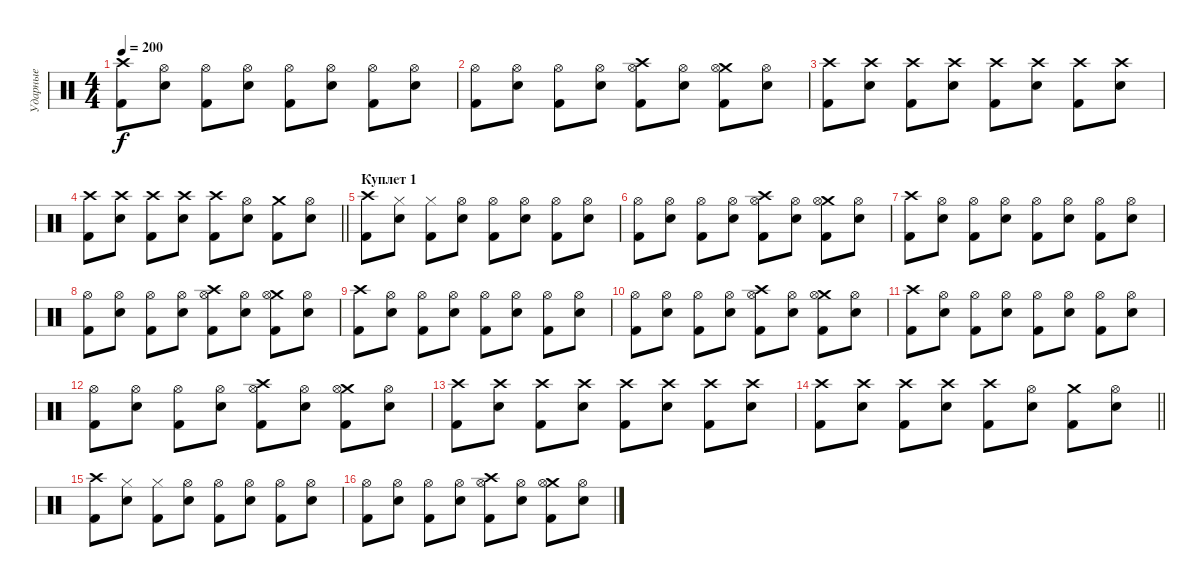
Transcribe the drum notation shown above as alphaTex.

\track ("Ударные" "Ударные") {instrument percussion}
\staff {score}
\articulation defaults
\ts (4 4)
\tempo 200
\clef neutral
\ks c
("Crash high (hit)" "Kick (hit) 2").8{dy f} ("Hi-Hat (open)" "Snare (hit) 2").8 ("Hi-Hat (open)" "Kick (hit) 2").8 ("Hi-Hat (open)" "Snare (hit) 2").8 ("Hi-Hat (open)" "Kick (hit) 2").8 ("Hi-Hat (open)" "Snare (hit) 2").8 ("Hi-Hat (open)" "Kick (hit) 2").8 ("Hi-Hat (open)" "Snare (hit) 2").8 |
("Hi-Hat (open)" "Kick (hit) 2").8 ("Hi-Hat (open)" "Snare (hit) 2").8 ("Hi-Hat (open)" "Kick (hit) 2").8 ("Hi-Hat (open)" "Snare (hit) 2").8 ("Crash high (hit)" "Hi-Hat (open)" "Kick (hit) 2").8 ("Hi-Hat (open)" "Snare (hit) 2").8 ("Crash medium (hit)" "Hi-Hat (open)" "Kick (hit) 2").8 ("Hi-Hat (open)" "Snare (hit) 2").8 |
("Crash high (hit)" "Kick (hit) 2").8 ("Crash high (hit)" "Snare (hit) 2").8 ("Crash high (hit)" "Kick (hit) 2").8 ("Crash high (hit)" "Snare (hit) 2").8 ("Crash high (hit)" "Kick (hit) 2").8 ("Crash high (hit)" "Snare (hit) 2").8 ("Crash high (hit)" "Kick (hit) 2").8 ("Crash high (hit)" "Snare (hit) 2").8 |
\barLineRight lightlight
("Crash high (hit)" "Kick (hit) 2").8 ("Crash high (hit)" "Snare (hit) 2").8 ("Crash high (hit)" "Kick (hit) 2").8 ("Crash high (hit)" "Snare (hit) 2").8 ("Crash high (hit)" "Kick (hit) 2").8 ("Hi-Hat (open)" "Snare (hit) 2").8 ("Crash medium (hit)" "Kick (hit) 2").8 ("Hi-Hat (open)" "Snare (hit) 2").8 |
\section ("" "Куплет 1")
("Crash high (hit)" "Kick (hit) 2").8 ("Hi-Hat (closed)" "Snare (hit) 2").8 ("Hi-Hat (closed)" "Kick (hit) 2").8 ("Hi-Hat (open)" "Snare (hit) 2").8 ("Hi-Hat (open)" "Kick (hit) 2").8 ("Hi-Hat (open)" "Snare (hit) 2").8 ("Hi-Hat (open)" "Kick (hit) 2").8 ("Hi-Hat (open)" "Snare (hit) 2").8 |
("Hi-Hat (open)" "Kick (hit) 2").8 ("Hi-Hat (open)" "Snare (hit) 2").8 ("Hi-Hat (open)" "Kick (hit) 2").8 ("Hi-Hat (open)" "Snare (hit) 2").8 ("Crash high (hit)" "Hi-Hat (open)" "Kick (hit) 2").8 ("Hi-Hat (open)" "Snare (hit) 2").8 ("Crash medium (hit)" "Hi-Hat (open)" "Kick (hit) 2").8 ("Hi-Hat (open)" "Snare (hit) 2").8 |
("Crash high (hit)" "Kick (hit) 2").8 ("Hi-Hat (open)" "Snare (hit) 2").8 ("Hi-Hat (open)" "Kick (hit) 2").8 ("Hi-Hat (open)" "Snare (hit) 2").8 ("Hi-Hat (open)" "Kick (hit) 2").8 ("Hi-Hat (open)" "Snare (hit) 2").8 ("Hi-Hat (open)" "Kick (hit) 2").8 ("Hi-Hat (open)" "Snare (hit) 2").8 |
("Hi-Hat (open)" "Kick (hit) 2").8 ("Hi-Hat (open)" "Snare (hit) 2").8 ("Hi-Hat (open)" "Kick (hit) 2").8 ("Hi-Hat (open)" "Snare (hit) 2").8 ("Crash high (hit)" "Hi-Hat (open)" "Kick (hit) 2").8 ("Hi-Hat (open)" "Snare (hit) 2").8 ("Crash medium (hit)" "Hi-Hat (open)" "Kick (hit) 2").8 ("Hi-Hat (open)" "Snare (hit) 2").8 |
("Crash high (hit)" "Kick (hit) 2").8 ("Hi-Hat (open)" "Snare (hit) 2").8 ("Hi-Hat (open)" "Kick (hit) 2").8 ("Hi-Hat (open)" "Snare (hit) 2").8 ("Hi-Hat (open)" "Kick (hit) 2").8 ("Hi-Hat (open)" "Snare (hit) 2").8 ("Hi-Hat (open)" "Kick (hit) 2").8 ("Hi-Hat (open)" "Snare (hit) 2").8 |
("Hi-Hat (open)" "Kick (hit) 2").8 ("Hi-Hat (open)" "Snare (hit) 2").8 ("Hi-Hat (open)" "Kick (hit) 2").8 ("Hi-Hat (open)" "Snare (hit) 2").8 ("Crash high (hit)" "Hi-Hat (open)" "Kick (hit) 2").8 ("Hi-Hat (open)" "Snare (hit) 2").8 ("Crash medium (hit)" "Hi-Hat (open)" "Kick (hit) 2").8 ("Hi-Hat (open)" "Snare (hit) 2").8 |
("Crash high (hit)" "Kick (hit) 2").8 ("Hi-Hat (open)" "Snare (hit) 2").8 ("Hi-Hat (open)" "Kick (hit) 2").8 ("Hi-Hat (open)" "Snare (hit) 2").8 ("Hi-Hat (open)" "Kick (hit) 2").8 ("Hi-Hat (open)" "Snare (hit) 2").8 ("Hi-Hat (open)" "Kick (hit) 2").8 ("Hi-Hat (open)" "Snare (hit) 2").8 |
("Hi-Hat (open)" "Kick (hit) 2").8 ("Hi-Hat (open)" "Snare (hit) 2").8 ("Hi-Hat (open)" "Kick (hit) 2").8 ("Hi-Hat (open)" "Snare (hit) 2").8 ("Crash high (hit)" "Hi-Hat (open)" "Kick (hit) 2").8 ("Hi-Hat (open)" "Snare (hit) 2").8 ("Crash medium (hit)" "Hi-Hat (open)" "Kick (hit) 2").8 ("Hi-Hat (open)" "Snare (hit) 2").8 |
("Crash high (hit)" "Kick (hit) 2").8 ("Crash high (hit)" "Snare (hit) 2").8 ("Crash high (hit)" "Kick (hit) 2").8 ("Crash high (hit)" "Snare (hit) 2").8 ("Crash high (hit)" "Kick (hit) 2").8 ("Crash high (hit)" "Snare (hit) 2").8 ("Crash high (hit)" "Kick (hit) 2").8 ("Crash high (hit)" "Snare (hit) 2").8 |
\barLineRight lightlight
("Crash high (hit)" "Kick (hit) 2").8 ("Crash high (hit)" "Snare (hit) 2").8 ("Crash high (hit)" "Kick (hit) 2").8 ("Crash high (hit)" "Snare (hit) 2").8 ("Crash high (hit)" "Kick (hit) 2").8 ("Hi-Hat (open)" "Snare (hit) 2").8 ("Crash medium (hit)" "Kick (hit) 2").8 ("Hi-Hat (open)" "Snare (hit) 2").8 |
("Crash high (hit)" "Kick (hit) 2").8 ("Hi-Hat (closed)" "Snare (hit) 2").8 ("Hi-Hat (closed)" "Kick (hit) 2").8 ("Hi-Hat (open)" "Snare (hit) 2").8 ("Hi-Hat (open)" "Kick (hit) 2").8 ("Hi-Hat (open)" "Snare (hit) 2").8 ("Hi-Hat (open)" "Kick (hit) 2").8 ("Hi-Hat (open)" "Snare (hit) 2").8 |
("Hi-Hat (open)" "Kick (hit) 2").8 ("Hi-Hat (open)" "Snare (hit) 2").8 ("Hi-Hat (open)" "Kick (hit) 2").8 ("Hi-Hat (open)" "Snare (hit) 2").8 ("Crash high (hit)" "Hi-Hat (open)" "Kick (hit) 2").8 ("Hi-Hat (open)" "Snare (hit) 2").8 ("Crash medium (hit)" "Hi-Hat (open)" "Kick (hit) 2").8 ("Hi-Hat (open)" "Snare (hit) 2").8
